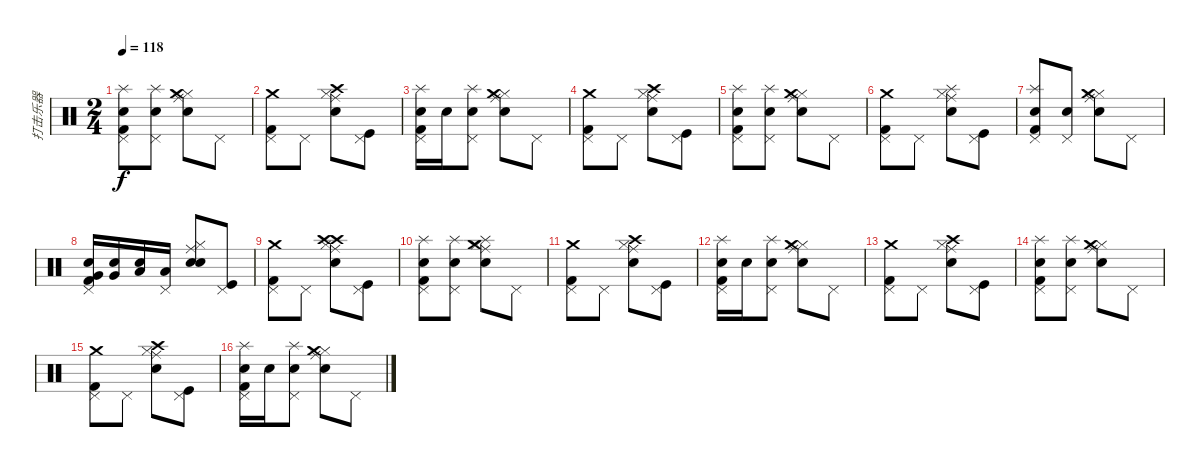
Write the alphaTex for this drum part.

\track ("打击乐器" "打击乐器") {instrument percussion}
\staff {score}
\articulation defaults
\ts (2 4)
\tempo 118
\clef neutral
\ks c
("Snare (hit) 2" "Pedal Hi-Hat (hit)" "Splash (hit)" "Kick (hit) 2").8{dy f} ("Snare (hit) 2" "Pedal Hi-Hat (hit)" "Splash (hit)").8 ("Ride (middle)" "Hi-Hat (closed)" "Crash medium (hit)" "Snare (hit) 2").8 "Pedal Hi-Hat (hit)".8 |
("Pedal Hi-Hat (hit)" "Crash medium (hit)" "Kick (hit) 2").8 "Pedal Hi-Hat (hit)".8 ("Ride (middle)" "Hi-Hat (closed)" "Crash high (hit)" "Snare (hit) 2").8 ("Pedal Hi-Hat (hit)" "Kick (hit)").8 |
("Snare (hit) 2" "Pedal Hi-Hat (hit)" "Splash (hit)" "Kick (hit) 2").16 "Snare (hit) 2".16 ("Snare (hit) 2" "Pedal Hi-Hat (hit)" "Splash (hit)").8 ("Ride (middle)" "Hi-Hat (closed)" "Crash medium (hit)" "Snare (hit) 2").8 "Pedal Hi-Hat (hit)".8 |
("Pedal Hi-Hat (hit)" "Crash medium (hit)" "Kick (hit) 2").8 "Pedal Hi-Hat (hit)".8 ("Ride (middle)" "Hi-Hat (closed)" "Crash high (hit)" "Snare (hit) 2").8 ("Pedal Hi-Hat (hit)" "Kick (hit)").8 |
("Snare (hit) 2" "Pedal Hi-Hat (hit)" "Splash (hit)" "Kick (hit) 2").8 ("Snare (hit) 2" "Pedal Hi-Hat (hit)" "Splash (hit)").8 ("Ride (middle)" "Hi-Hat (closed)" "Crash medium (hit)" "Snare (hit) 2").8 "Pedal Hi-Hat (hit)".8 |
("Pedal Hi-Hat (hit)" "Crash medium (hit)" "Kick (hit) 2").8 "Pedal Hi-Hat (hit)".8 ("Ride (middle)" "Hi-Hat (closed)" "Splash (hit)" "Snare (hit) 2").8 ("Pedal Hi-Hat (hit)" "Kick (hit)").8 |
("Snare (hit) 2" "Pedal Hi-Hat (hit)" "Splash (hit)" "Kick (hit) 2").8 ("Snare (hit) 2" "Pedal Hi-Hat (hit)").8 ("Ride (middle)" "Hi-Hat (closed)" "Crash medium (hit)" "Snare (hit) 2").8 "Pedal Hi-Hat (hit)".8 |
("Very Low Tom (hit)" "Pedal Hi-Hat (hit)" "Electric Snare (hit)" "Kick (hit) 2").16 ("Very Low Tom (hit)" "Electric Snare (hit)").16 ("Low Floor Tom (hit)" "Electric Snare (hit)").16 ("Low Floor Tom (hit)" "Pedal Hi-Hat (hit)").16 ("Ride (middle)" "Hi-Hat (closed)" "Electric Snare (hit)" "Snare (hit) 2").8 ("Pedal Hi-Hat (hit)" "Kick (hit)").8 |
("Pedal Hi-Hat (hit)" "Crash medium (hit)" "Kick (hit) 2").8 "Pedal Hi-Hat (hit)".8 ("Crash high (hit)" "Ride (middle)" "Hi-Hat (closed)" "Crash high (hit)" "Snare (hit) 2").8 ("Pedal Hi-Hat (hit)" "Kick (hit)").8 |
("Snare (hit) 2" "Pedal Hi-Hat (hit)" "Splash (hit)" "Kick (hit) 2").8 ("Snare (hit) 2" "Pedal Hi-Hat (hit)" "Splash (hit)").8 ("Splash (hit)" "Ride (middle)" "Hi-Hat (closed)" "Crash medium (hit)" "Snare (hit) 2").8 "Pedal Hi-Hat (hit)".8 |
("Pedal Hi-Hat (hit)" "Crash medium (hit)" "Kick (hit) 2").8 "Pedal Hi-Hat (hit)".8 ("Ride (middle)" "Hi-Hat (closed)" "Crash high (hit)" "Snare (hit) 2").8 ("Pedal Hi-Hat (hit)" "Kick (hit)").8 |
("Snare (hit) 2" "Pedal Hi-Hat (hit)" "Splash (hit)" "Kick (hit) 2").16 "Snare (hit) 2".16 ("Snare (hit) 2" "Pedal Hi-Hat (hit)" "Splash (hit)").8 ("Ride (middle)" "Hi-Hat (closed)" "Crash medium (hit)" "Snare (hit) 2").8 "Pedal Hi-Hat (hit)".8 |
("Pedal Hi-Hat (hit)" "Crash medium (hit)" "Kick (hit) 2").8 "Pedal Hi-Hat (hit)".8 ("Ride (middle)" "Hi-Hat (closed)" "Crash high (hit)" "Snare (hit) 2").8 ("Pedal Hi-Hat (hit)" "Kick (hit)").8 |
("Snare (hit) 2" "Pedal Hi-Hat (hit)" "Splash (hit)" "Kick (hit) 2").8 ("Snare (hit) 2" "Pedal Hi-Hat (hit)" "Splash (hit)").8 ("Ride (middle)" "Hi-Hat (closed)" "Crash medium (hit)" "Snare (hit) 2").8 "Pedal Hi-Hat (hit)".8 |
("Pedal Hi-Hat (hit)" "Crash medium (hit)" "Kick (hit) 2").8 "Pedal Hi-Hat (hit)".8 ("Ride (middle)" "Hi-Hat (closed)" "Crash high (hit)" "Snare (hit) 2").8 ("Pedal Hi-Hat (hit)" "Kick (hit)").8 |
("Snare (hit) 2" "Pedal Hi-Hat (hit)" "Splash (hit)" "Kick (hit) 2").16 "Snare (hit) 2".16 ("Snare (hit) 2" "Pedal Hi-Hat (hit)" "Splash (hit)").8 ("Ride (middle)" "Hi-Hat (closed)" "Crash medium (hit)" "Snare (hit) 2").8 "Pedal Hi-Hat (hit)".8
